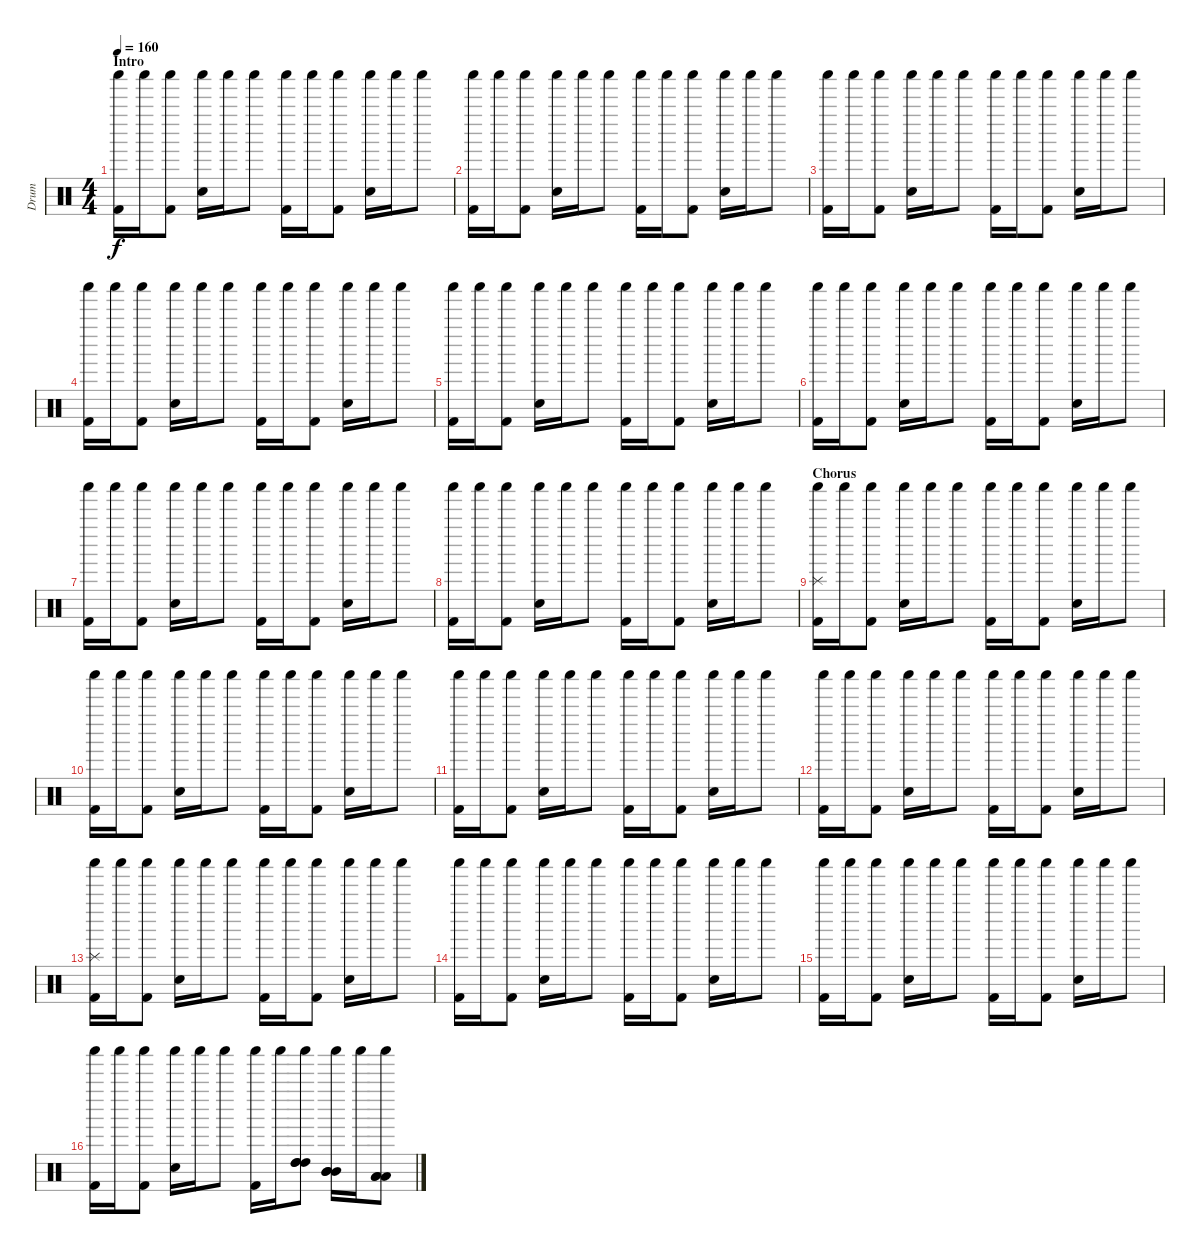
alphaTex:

\track ("Drum" "Drum") {instrument percussion}
\staff {score}
\articulation defaults
\ts (4 4)
\section ("" "Intro")
\tempo 160
\clef neutral
\ks c
("Shaker (hit)" "Kick (hit) 2").16{dy f} "Shaker (hit)".16 ("Shaker (hit)" "Kick (hit) 2").8 ("Shaker (hit)" "Snare (hit) 2").16 "Shaker (hit)".16 "Shaker (hit)".8 ("Shaker (hit)" "Kick (hit) 2").16 "Shaker (hit)".16 ("Shaker (hit)" "Kick (hit) 2").8 ("Shaker (hit)" "Snare (hit) 2").16 "Shaker (hit)".16 "Shaker (hit)".8 |
("Shaker (hit)" "Kick (hit) 2").16 "Shaker (hit)".16 ("Shaker (hit)" "Kick (hit) 2").8 ("Shaker (hit)" "Snare (hit) 2").16 "Shaker (hit)".16 "Shaker (hit)".8 ("Shaker (hit)" "Kick (hit) 2").16 "Shaker (hit)".16 ("Shaker (hit)" "Kick (hit) 2").8 ("Shaker (hit)" "Snare (hit) 2").16 "Shaker (hit)".16 "Shaker (hit)".8 |
("Shaker (hit)" "Kick (hit) 2").16 "Shaker (hit)".16 ("Shaker (hit)" "Kick (hit) 2").8 ("Shaker (hit)" "Snare (hit) 2").16 "Shaker (hit)".16 "Shaker (hit)".8 ("Shaker (hit)" "Kick (hit) 2").16 "Shaker (hit)".16 ("Shaker (hit)" "Kick (hit) 2").8 ("Shaker (hit)" "Snare (hit) 2").16 "Shaker (hit)".16 "Shaker (hit)".8 |
("Shaker (hit)" "Kick (hit) 2").16 "Shaker (hit)".16 ("Shaker (hit)" "Kick (hit) 2").8 ("Shaker (hit)" "Snare (hit) 2").16 "Shaker (hit)".16 "Shaker (hit)".8 ("Shaker (hit)" "Kick (hit) 2").16 "Shaker (hit)".16 ("Shaker (hit)" "Kick (hit) 2").8 ("Shaker (hit)" "Snare (hit) 2").16 "Shaker (hit)".16 "Shaker (hit)".8 |
("Shaker (hit)" "Kick (hit) 2").16 "Shaker (hit)".16 ("Shaker (hit)" "Kick (hit) 2").8 ("Shaker (hit)" "Snare (hit) 2").16 "Shaker (hit)".16 "Shaker (hit)".8 ("Shaker (hit)" "Kick (hit) 2").16 "Shaker (hit)".16 ("Shaker (hit)" "Kick (hit) 2").8 ("Shaker (hit)" "Snare (hit) 2").16 "Shaker (hit)".16 "Shaker (hit)".8 |
("Shaker (hit)" "Kick (hit) 2").16 "Shaker (hit)".16 ("Shaker (hit)" "Kick (hit) 2").8 ("Shaker (hit)" "Snare (hit) 2").16 "Shaker (hit)".16 "Shaker (hit)".8 ("Shaker (hit)" "Kick (hit) 2").16 "Shaker (hit)".16 ("Shaker (hit)" "Kick (hit) 2").8 ("Shaker (hit)" "Snare (hit) 2").16 "Shaker (hit)".16 "Shaker (hit)".8 |
("Shaker (hit)" "Kick (hit) 2").16 "Shaker (hit)".16 ("Shaker (hit)" "Kick (hit) 2").8 ("Shaker (hit)" "Snare (hit) 2").16 "Shaker (hit)".16 "Shaker (hit)".8 ("Shaker (hit)" "Kick (hit) 2").16 "Shaker (hit)".16 ("Shaker (hit)" "Kick (hit) 2").8 ("Shaker (hit)" "Snare (hit) 2").16 "Shaker (hit)".16 "Shaker (hit)".8 |
("Shaker (hit)" "Kick (hit) 2").16 "Shaker (hit)".16 ("Shaker (hit)" "Kick (hit) 2").8 ("Shaker (hit)" "Snare (hit) 2").16 "Shaker (hit)".16 "Shaker (hit)".8 ("Shaker (hit)" "Kick (hit) 2").16 "Shaker (hit)".16 ("Shaker (hit)" "Kick (hit) 2").8 ("Shaker (hit)" "Snare (hit) 2").16 "Shaker (hit)".16 "Shaker (hit)".8 |
\section ("" "Chorus")
("Splash (hit)" "Shaker (hit)" "Kick (hit) 2").16 "Shaker (hit)".16 ("Shaker (hit)" "Kick (hit) 2").8 ("Shaker (hit)" "Snare (hit) 2").16 "Shaker (hit)".16 "Shaker (hit)".8 ("Shaker (hit)" "Kick (hit) 2").16 "Shaker (hit)".16 ("Shaker (hit)" "Kick (hit) 2").8 ("Shaker (hit)" "Snare (hit) 2").16 "Shaker (hit)".16 "Shaker (hit)".8 |
("Shaker (hit)" "Kick (hit) 2").16 "Shaker (hit)".16 ("Shaker (hit)" "Kick (hit) 2").8 ("Shaker (hit)" "Snare (hit) 2").16 "Shaker (hit)".16 "Shaker (hit)".8 ("Shaker (hit)" "Kick (hit) 2").16 "Shaker (hit)".16 ("Shaker (hit)" "Kick (hit) 2").8 ("Shaker (hit)" "Snare (hit) 2").16 "Shaker (hit)".16 "Shaker (hit)".8 |
("Shaker (hit)" "Kick (hit) 2").16 "Shaker (hit)".16 ("Shaker (hit)" "Kick (hit) 2").8 ("Shaker (hit)" "Snare (hit) 2").16 "Shaker (hit)".16 "Shaker (hit)".8 ("Shaker (hit)" "Kick (hit) 2").16 "Shaker (hit)".16 ("Shaker (hit)" "Kick (hit) 2").8 ("Shaker (hit)" "Snare (hit) 2").16 "Shaker (hit)".16 "Shaker (hit)".8 |
("Shaker (hit)" "Kick (hit) 2").16 "Shaker (hit)".16 ("Shaker (hit)" "Kick (hit) 2").8 ("Shaker (hit)" "Snare (hit) 2").16 "Shaker (hit)".16 "Shaker (hit)".8 ("Shaker (hit)" "Kick (hit) 2").16 "Shaker (hit)".16 ("Shaker (hit)" "Kick (hit) 2").8 ("Shaker (hit)" "Snare (hit) 2").16 "Shaker (hit)".16 "Shaker (hit)".8 |
("Splash (hit)" "Shaker (hit)" "Kick (hit) 2").16 "Shaker (hit)".16 ("Shaker (hit)" "Kick (hit) 2").8 ("Shaker (hit)" "Snare (hit) 2").16 "Shaker (hit)".16 "Shaker (hit)".8 ("Shaker (hit)" "Kick (hit) 2").16 "Shaker (hit)".16 ("Shaker (hit)" "Kick (hit) 2").8 ("Shaker (hit)" "Snare (hit) 2").16 "Shaker (hit)".16 "Shaker (hit)".8 |
("Shaker (hit)" "Kick (hit) 2").16 "Shaker (hit)".16 ("Shaker (hit)" "Kick (hit) 2").8 ("Shaker (hit)" "Snare (hit) 2").16 "Shaker (hit)".16 "Shaker (hit)".8 ("Shaker (hit)" "Kick (hit) 2").16 "Shaker (hit)".16 ("Shaker (hit)" "Kick (hit) 2").8 ("Shaker (hit)" "Snare (hit) 2").16 "Shaker (hit)".16 "Shaker (hit)".8 |
("Shaker (hit)" "Kick (hit) 2").16 "Shaker (hit)".16 ("Shaker (hit)" "Kick (hit) 2").8 ("Shaker (hit)" "Snare (hit) 2").16 "Shaker (hit)".16 "Shaker (hit)".8 ("Shaker (hit)" "Kick (hit) 2").16 "Shaker (hit)".16 ("Shaker (hit)" "Kick (hit) 2").8 ("Shaker (hit)" "Snare (hit) 2").16 "Shaker (hit)".16 "Shaker (hit)".8 |
("Shaker (hit)" "Kick (hit) 2").16 "Shaker (hit)".16 ("Shaker (hit)" "Kick (hit) 2").8 ("Shaker (hit)" "Snare (hit) 2").16 "Shaker (hit)".16 "Shaker (hit)".8 ("Shaker (hit)" "Kick (hit) 2").16 "Shaker (hit)".16 ("High Tom (hit)" "High Tom (hit)" "High Tom (hit)" "Shaker (hit)").8 ("Mid Tom (hit)" "Mid Tom (hit)" "Mid Tom (hit)" "Shaker (hit)").16 "Shaker (hit)".16 ("Low Tom (hit)" "Low Tom (hit)" "Low Tom (hit)" "Shaker (hit)").8
